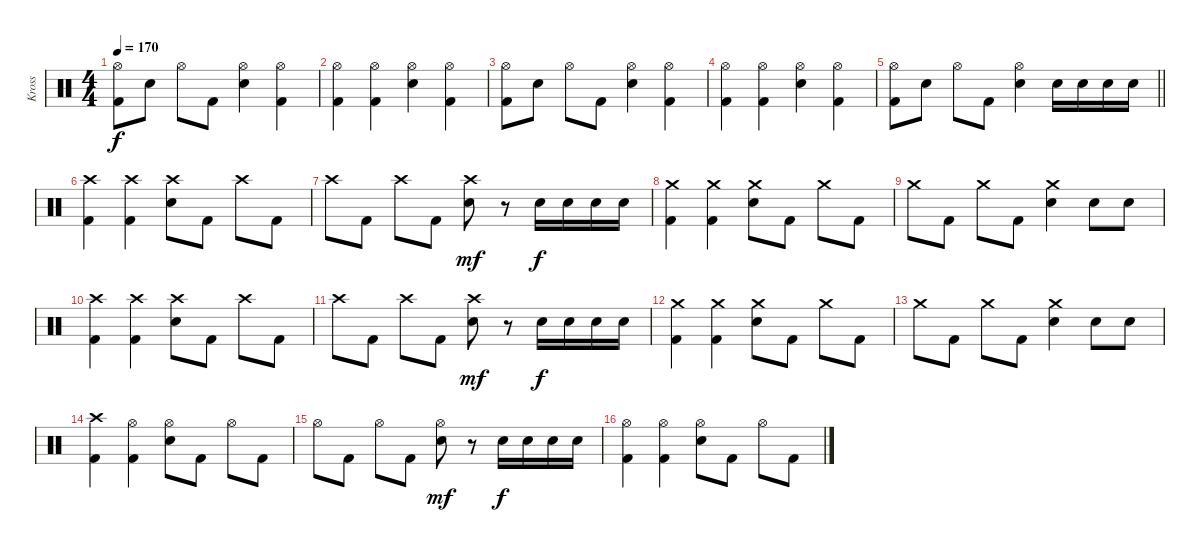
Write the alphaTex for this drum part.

\track ("Kross" "Kross") {instrument percussion}
\staff {score}
\articulation defaults
\ts (4 4)
\tempo 170
\clef neutral
\ks c
("Hi-Hat (open)" "Kick (hit) 2").8{dy f} "Electric Snare (hit)".8 "Hi-Hat (open)".8 "Kick (hit) 2".8 ("Hi-Hat (open)" "Electric Snare (hit)").4 ("Hi-Hat (open)" "Kick (hit) 2").4 |
("Hi-Hat (open)" "Kick (hit) 2").4 ("Hi-Hat (open)" "Kick (hit) 2").4 ("Hi-Hat (open)" "Electric Snare (hit)").4 ("Hi-Hat (open)" "Kick (hit) 2").4 |
("Hi-Hat (open)" "Kick (hit) 2").8 "Electric Snare (hit)".8 "Hi-Hat (open)".8 "Kick (hit) 2".8 ("Hi-Hat (open)" "Electric Snare (hit)").4 ("Hi-Hat (open)" "Kick (hit) 2").4 |
("Hi-Hat (open)" "Kick (hit) 2").4 ("Hi-Hat (open)" "Kick (hit) 2").4 ("Hi-Hat (open)" "Electric Snare (hit)").4 ("Hi-Hat (open)" "Kick (hit) 2").4 |
\barLineRight lightlight
("Hi-Hat (open)" "Kick (hit) 2").8 "Electric Snare (hit)".8 "Hi-Hat (open)".8 "Kick (hit) 2".8 ("Hi-Hat (open)" "Electric Snare (hit)").4 "Electric Snare (hit)".16 "Electric Snare (hit)".16 "Electric Snare (hit)".16 "Electric Snare (hit)".16 |
("Crash high (hit)" "Kick (hit) 2").4 ("Crash high (hit)" "Kick (hit) 2").4 ("Crash high (hit)" "Electric Snare (hit)").8 "Kick (hit) 2".8 "Crash high (hit)".8 "Kick (hit) 2".8 |
"Crash high (hit)".8 "Kick (hit) 2".8 "Crash high (hit)".8 "Kick (hit) 2".8 ("Crash high (hit)" "Electric Snare (hit)").8{dy mf} r.8 "Electric Snare (hit)".16{dy f} "Electric Snare (hit)".16 "Electric Snare (hit)".16 "Electric Snare (hit)".16 |
("Crash medium (hit)" "Kick (hit) 2").4 ("Crash medium (hit)" "Kick (hit) 2").4 ("Crash medium (hit)" "Electric Snare (hit)").8 "Kick (hit) 2".8 "Crash medium (hit)".8 "Kick (hit) 2".8 |
"Crash medium (hit)".8 "Kick (hit) 2".8 "Crash medium (hit)".8 "Kick (hit) 2".8 ("Crash medium (hit)" "Electric Snare (hit)").4 "Electric Snare (hit)".8 "Electric Snare (hit)".8 |
("Crash high (hit)" "Kick (hit) 2").4 ("Crash high (hit)" "Kick (hit) 2").4 ("Crash high (hit)" "Electric Snare (hit)").8 "Kick (hit) 2".8 "Crash high (hit)".8 "Kick (hit) 2".8 |
"Crash high (hit)".8 "Kick (hit) 2".8 "Crash high (hit)".8 "Kick (hit) 2".8 ("Crash high (hit)" "Electric Snare (hit)").8{dy mf} r.8 "Electric Snare (hit)".16{dy f} "Electric Snare (hit)".16 "Electric Snare (hit)".16 "Electric Snare (hit)".16 |
("Crash medium (hit)" "Kick (hit) 2").4 ("Crash medium (hit)" "Kick (hit) 2").4 ("Crash medium (hit)" "Electric Snare (hit)").8 "Kick (hit) 2".8 "Crash medium (hit)".8 "Kick (hit) 2".8 |
"Crash medium (hit)".8 "Kick (hit) 2".8 "Crash medium (hit)".8 "Kick (hit) 2".8 ("Crash medium (hit)" "Electric Snare (hit)").4 "Electric Snare (hit)".8 "Electric Snare (hit)".8 |
("Crash high (hit)" "Kick (hit) 2").4 ("Hi-Hat (open)" "Kick (hit) 2").4 ("Hi-Hat (open)" "Electric Snare (hit)").8 "Kick (hit) 2".8 "Hi-Hat (open)".8 "Kick (hit) 2".8 |
"Hi-Hat (open)".8 "Kick (hit) 2".8 "Hi-Hat (open)".8 "Kick (hit) 2".8 ("Hi-Hat (open)" "Electric Snare (hit)").8{dy mf} r.8 "Electric Snare (hit)".16{dy f} "Electric Snare (hit)".16 "Electric Snare (hit)".16 "Electric Snare (hit)".16 |
("Hi-Hat (open)" "Kick (hit) 2").4 ("Hi-Hat (open)" "Kick (hit) 2").4 ("Hi-Hat (open)" "Electric Snare (hit)").8 "Kick (hit) 2".8 "Hi-Hat (open)".8 "Kick (hit) 2".8
